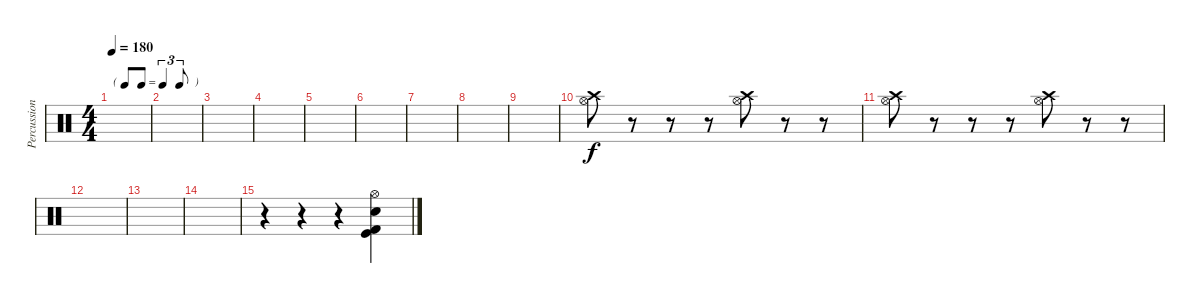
\track ("Percussions" "Percussion") {instrument percussion}
\staff {score}
\articulation defaults
\ts (4 4)
\tf triplet8th
\tempo 180
\clef neutral
\ks c
|
|
|
|
|
|
|
|
|
("Crash high (hit)" "Hi-Hat (open)").8 r.8 r.8 r.8 ("Crash high (hit)" "Hi-Hat (open)").8 r.8 r.8 |
("Hi-Hat (open)" "Crash high (hit)").8 r.8 r.8 r.8 ("Hi-Hat (open)" "Crash high (hit)").8 r.8 r.8 |
|
|
|
r.4 r.4 r.4 ("Kick (hit) 2" "Kick (hit)" "Hi-Hat (open)" "Snare (hit)").4
